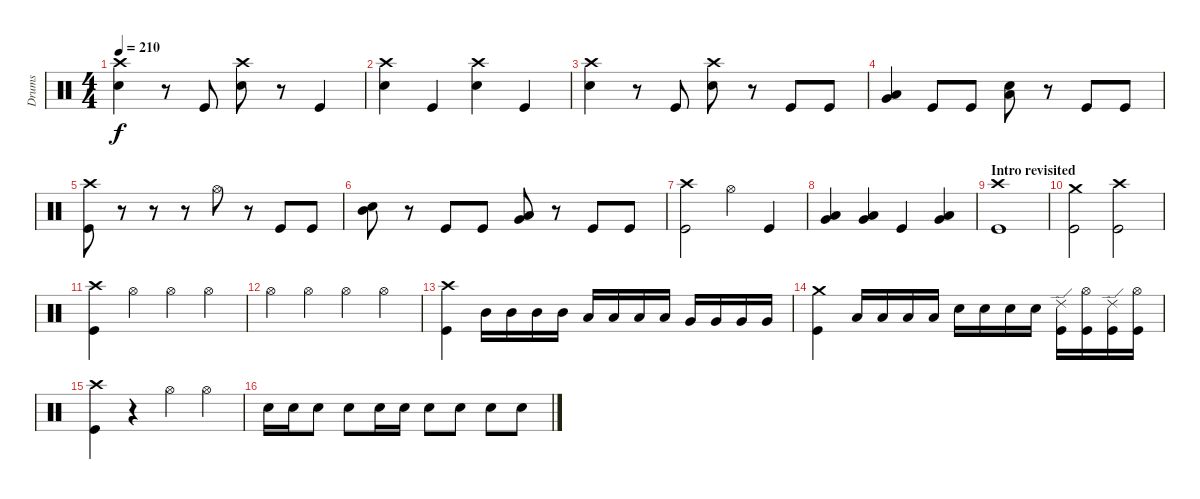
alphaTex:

\track ("Drums" "Drums") {instrument percussion}
\staff {score}
\articulation defaults
\ts (4 4)
\tempo 210
\clef neutral
\ks c
("Crash high (hit)" "Snare (hit) 2").4{dy f} r.8 "Kick (hit)".8 ("Crash high (hit)" "Snare (hit) 2").8 r.8 "Kick (hit)".4 |
("Crash high (hit)" "Snare (hit) 2").4 "Kick (hit)".4 ("Crash high (hit)" "Snare (hit) 2").4 "Kick (hit)".4 |
("Crash high (hit)" "Snare (hit) 2").4 r.8 "Kick (hit)".8 ("Crash high (hit)" "Snare (hit) 2").8 r.8 "Kick (hit)".8 "Kick (hit)".8 |
("Low Tom (hit)" "Very Low Tom (hit)").4 "Kick (hit)".8 "Kick (hit)".8 ("Low Tom (hit)" "Snare (hit) 2").8 r.8 "Kick (hit)".8 "Kick (hit)".8 |
("Crash high (hit)" "Kick (hit)").8 r.8 r.8 r.8 "Hi-Hat (open)".8 r.8 "Kick (hit)".8 "Kick (hit)".8 |
("Mid Tom (hit)" "Snare (hit) 2").8 r.8 "Kick (hit)".8 "Kick (hit)".8 ("Very Low Tom (hit)" "Low Tom (hit)").8 r.8 "Kick (hit)".8 "Kick (hit)".8 |
("Crash high (hit)" "Kick (hit)").2 "Hi-Hat (open)".4 "Kick (hit)".4 |
("Very Low Tom (hit)" "Low Tom (hit)").4 ("Very Low Tom (hit)" "Low Tom (hit)").4 "Kick (hit)".4 ("Very Low Tom (hit)" "Low Floor Tom (hit)").4 |
\section ("" "Intro revisited")
("Crash high (hit)" "Kick (hit)").1 |
("Crash medium (hit)" "Kick (hit)").2 ("Crash high (hit)" "Kick (hit)").2 |
("Crash high (hit)" "Kick (hit)").4 "Hi-Hat (open)".4 "Hi-Hat (open)".4 "Hi-Hat (open)".4 |
"Hi-Hat (open)".4 "Hi-Hat (open)".4 "Hi-Hat (open)".4 "Hi-Hat (open)".4 |
("Crash high (hit)" "Kick (hit)").4 "Mid Tom (hit)".16 "Mid Tom (hit)".16 "Mid Tom (hit)".16 "Mid Tom (hit)".16 "Low Tom (hit)".16 "Low Tom (hit)".16 "Low Tom (hit)".16 "Low Tom (hit)".16 "Very Low Tom (hit)".16 "Very Low Tom (hit)".16 "Very Low Tom (hit)".16 "Very Low Tom (hit)".16 |
("Crash medium (hit)" "Kick (hit)").4 "Low Tom (hit)".16 "Low Tom (hit)".16 "Low Tom (hit)".16 "Low Tom (hit)".16 "Snare (hit) 2".16 "Snare (hit) 2".16 "Snare (hit) 2".16 "Snare (hit) 2".16 ("Ride (edge) 2" "Kick (hit)").16 ("Hi-Hat (open)" "Kick (hit)").16 ("Ride (edge) 2" "Kick (hit)").16 ("Hi-Hat (open)" "Kick (hit)").16 |
("Crash high (hit)" "Kick (hit)").4 r.4 "Hi-Hat (open)".4 "Hi-Hat (open)".4 |
"Snare (hit) 2".16 "Snare (hit) 2".16 "Snare (hit) 2".8 "Snare (hit) 2".8 "Snare (hit) 2".16 "Snare (hit) 2".16 "Snare (hit) 2".8 "Snare (hit) 2".8 "Snare (hit) 2".8 "Snare (hit) 2".8
